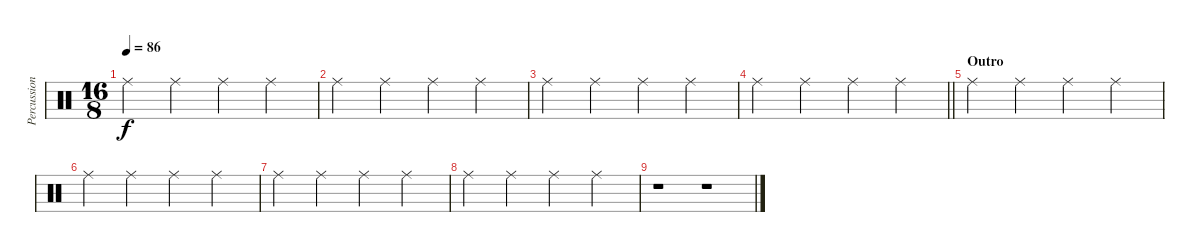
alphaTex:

\track ("Percussion" "Percussion") {instrument percussion}
\staff {score}
\articulation defaults
\ts (16 8)
\tempo 86
\clef neutral
\ks c "Ride (middle)".2{dy f} "Ride (middle)".2 "Ride (middle)".2 "Ride (middle)".2
|
"Ride (middle)".2 "Ride (middle)".2 "Ride (middle)".2 "Ride (middle)".2 |
"Ride (middle)".2 "Ride (middle)".2 "Ride (middle)".2 "Ride (middle)".2 |
\barLineRight lightlight "Ride (middle)".2 "Ride (middle)".2 "Ride (middle)".2 "Ride (middle)".2
|
\section ("" "Outro")
"Ride (middle)".2 "Ride (middle)".2 "Ride (middle)".2 "Ride (middle)".2 |
"Ride (middle)".2 "Ride (middle)".2 "Ride (middle)".2 "Ride (middle)".2 |
"Ride (middle)".2 "Ride (middle)".2 "Ride (middle)".2 "Ride (middle)".2 |
"Ride (middle)".2 "Ride (middle)".2 "Ride (middle)".2 "Ride (middle)".2 |
r.1 r.1
